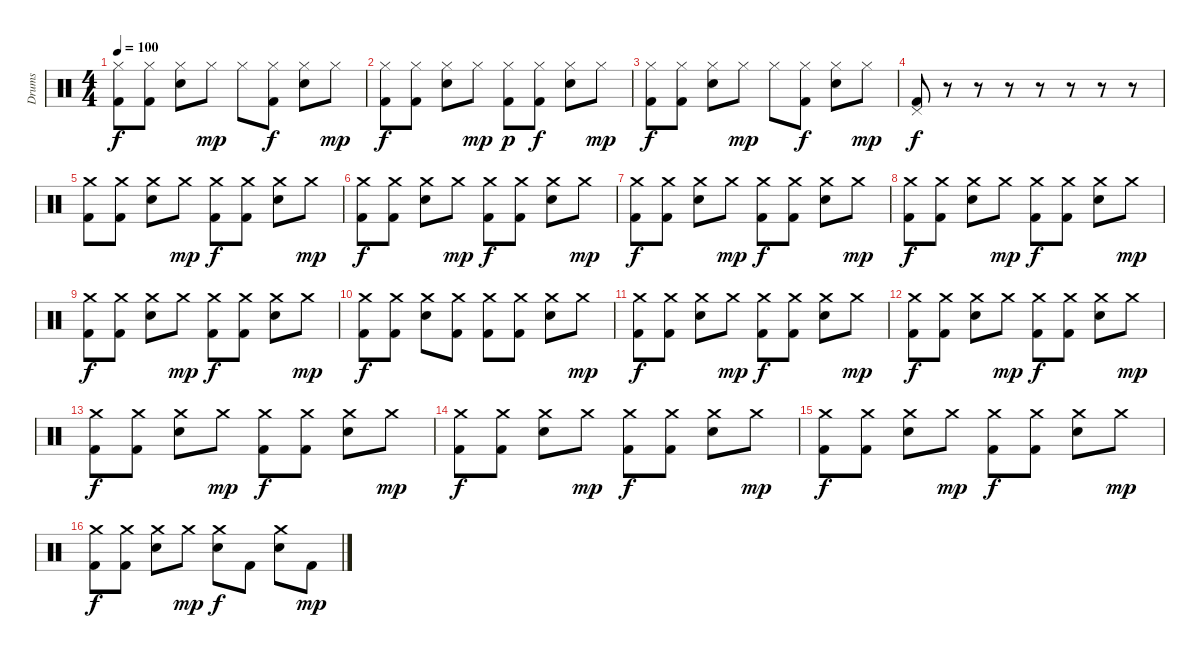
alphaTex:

\track ("Drums" "Drums") {instrument percussion}
\staff {score}
\articulation defaults
\ts (4 4)
\tempo 100
\clef neutral
\ks c
("Hi-Hat (closed)" "Kick (hit) 2").8{dy f} ("Hi-Hat (closed)" "Kick (hit) 2").8 ("Hi-Hat (closed)" "Electric Snare (hit)").8 "Hi-Hat (closed)".8{dy mp} "Hi-Hat (closed)".8 ("Hi-Hat (closed)" "Kick (hit) 2").8{dy f} ("Hi-Hat (closed)" "Electric Snare (hit)").8 "Hi-Hat (closed)".8{dy mp} |
("Hi-Hat (closed)" "Kick (hit) 2").8{dy f} ("Hi-Hat (closed)" "Kick (hit) 2").8 ("Hi-Hat (closed)" "Electric Snare (hit)").8 "Hi-Hat (closed)".8{dy mp} ("Hi-Hat (closed)" "Kick (hit) 2").8{dy p} ("Hi-Hat (closed)" "Kick (hit) 2").8{dy f} ("Hi-Hat (closed)" "Electric Snare (hit)").8 "Hi-Hat (closed)".8{dy mp} |
("Hi-Hat (closed)" "Kick (hit) 2").8{dy f} ("Hi-Hat (closed)" "Kick (hit) 2").8 ("Hi-Hat (closed)" "Electric Snare (hit)").8 "Hi-Hat (closed)".8{dy mp} "Hi-Hat (closed)".8 ("Hi-Hat (closed)" "Kick (hit) 2").8{dy f} ("Hi-Hat (closed)" "Electric Snare (hit)").8 "Hi-Hat (closed)".8{dy mp} |
("Pedal Hi-Hat (hit)" "Kick (hit) 2").8{dy f} r.8 r.8 r.8 r.8 r.8 r.8 r.8 |
("Crash medium (hit)" "Kick (hit) 2").8 ("Crash medium (hit)" "Kick (hit) 2").8 ("Crash medium (hit)" "Electric Snare (hit)").8 "Crash medium (hit)".8{dy mp} ("Crash medium (hit)" "Kick (hit) 2").8{dy f} ("Crash medium (hit)" "Kick (hit) 2").8 ("Crash medium (hit)" "Electric Snare (hit)").8 "Crash medium (hit)".8{dy mp} |
("Crash medium (hit)" "Kick (hit) 2").8{dy f} ("Crash medium (hit)" "Kick (hit) 2").8 ("Crash medium (hit)" "Electric Snare (hit)").8 "Crash medium (hit)".8{dy mp} ("Crash medium (hit)" "Kick (hit) 2").8{dy f} ("Crash medium (hit)" "Kick (hit) 2").8 ("Crash medium (hit)" "Electric Snare (hit)").8 "Crash medium (hit)".8{dy mp} |
("Crash medium (hit)" "Kick (hit) 2").8{dy f} ("Crash medium (hit)" "Kick (hit) 2").8 ("Crash medium (hit)" "Electric Snare (hit)").8 "Crash medium (hit)".8{dy mp} ("Crash medium (hit)" "Kick (hit) 2").8{dy f} ("Crash medium (hit)" "Kick (hit) 2").8 ("Crash medium (hit)" "Electric Snare (hit)").8 "Crash medium (hit)".8{dy mp} |
("Crash medium (hit)" "Kick (hit) 2").8{dy f} ("Crash medium (hit)" "Kick (hit) 2").8 ("Crash medium (hit)" "Electric Snare (hit)").8 "Crash medium (hit)".8{dy mp} ("Crash medium (hit)" "Kick (hit) 2").8{dy f} ("Crash medium (hit)" "Kick (hit) 2").8 ("Crash medium (hit)" "Electric Snare (hit)").8 "Crash medium (hit)".8{dy mp} |
("Crash medium (hit)" "Kick (hit) 2").8{dy f} ("Crash medium (hit)" "Kick (hit) 2").8 ("Crash medium (hit)" "Electric Snare (hit)").8 "Crash medium (hit)".8{dy mp} ("Crash medium (hit)" "Kick (hit) 2").8{dy f} ("Crash medium (hit)" "Kick (hit) 2").8 ("Crash medium (hit)" "Electric Snare (hit)").8 "Crash medium (hit)".8{dy mp} |
("Crash medium (hit)" "Kick (hit) 2").8{dy f} ("Crash medium (hit)" "Kick (hit) 2").8 ("Crash medium (hit)" "Electric Snare (hit)").8 ("Crash medium (hit)" "Kick (hit) 2").8 ("Crash medium (hit)" "Kick (hit) 2").8 ("Crash medium (hit)" "Kick (hit) 2").8 ("Crash medium (hit)" "Electric Snare (hit)").8 "Crash medium (hit)".8{dy mp} |
("Crash medium (hit)" "Kick (hit) 2").8{dy f} ("Crash medium (hit)" "Kick (hit) 2").8 ("Crash medium (hit)" "Electric Snare (hit)").8 "Crash medium (hit)".8{dy mp} ("Crash medium (hit)" "Kick (hit) 2").8{dy f} ("Crash medium (hit)" "Kick (hit) 2").8 ("Crash medium (hit)" "Electric Snare (hit)").8 "Crash medium (hit)".8{dy mp} |
("Crash medium (hit)" "Kick (hit) 2").8{dy f} ("Crash medium (hit)" "Kick (hit) 2").8 ("Crash medium (hit)" "Electric Snare (hit)").8 "Crash medium (hit)".8{dy mp} ("Crash medium (hit)" "Kick (hit) 2").8{dy f} ("Crash medium (hit)" "Kick (hit) 2").8 ("Crash medium (hit)" "Electric Snare (hit)").8 "Crash medium (hit)".8{dy mp} |
("Crash medium (hit)" "Kick (hit) 2").8{dy f} ("Crash medium (hit)" "Kick (hit) 2").8 ("Crash medium (hit)" "Electric Snare (hit)").8 "Crash medium (hit)".8{dy mp} ("Crash medium (hit)" "Kick (hit) 2").8{dy f} ("Crash medium (hit)" "Kick (hit) 2").8 ("Crash medium (hit)" "Electric Snare (hit)").8 "Crash medium (hit)".8{dy mp} |
("Crash medium (hit)" "Kick (hit) 2").8{dy f} ("Crash medium (hit)" "Kick (hit) 2").8 ("Crash medium (hit)" "Electric Snare (hit)").8 "Crash medium (hit)".8{dy mp} ("Crash medium (hit)" "Kick (hit) 2").8{dy f} ("Crash medium (hit)" "Kick (hit) 2").8 ("Crash medium (hit)" "Electric Snare (hit)").8 "Crash medium (hit)".8{dy mp} |
("Crash medium (hit)" "Kick (hit) 2").8{dy f} ("Crash medium (hit)" "Kick (hit) 2").8 ("Crash medium (hit)" "Electric Snare (hit)").8 "Crash medium (hit)".8{dy mp} ("Crash medium (hit)" "Kick (hit) 2").8{dy f} ("Crash medium (hit)" "Kick (hit) 2").8 ("Crash medium (hit)" "Electric Snare (hit)").8 "Crash medium (hit)".8{dy mp} |
("Crash medium (hit)" "Kick (hit) 2").8{dy f} ("Crash medium (hit)" "Kick (hit) 2").8 ("Crash medium (hit)" "Electric Snare (hit)").8 "Crash medium (hit)".8{dy mp} ("Crash medium (hit)" "Electric Snare (hit)").8{dy f} "Kick (hit) 2".8 ("Crash medium (hit)" "Electric Snare (hit)").8 "Kick (hit) 2".8{dy mp}
